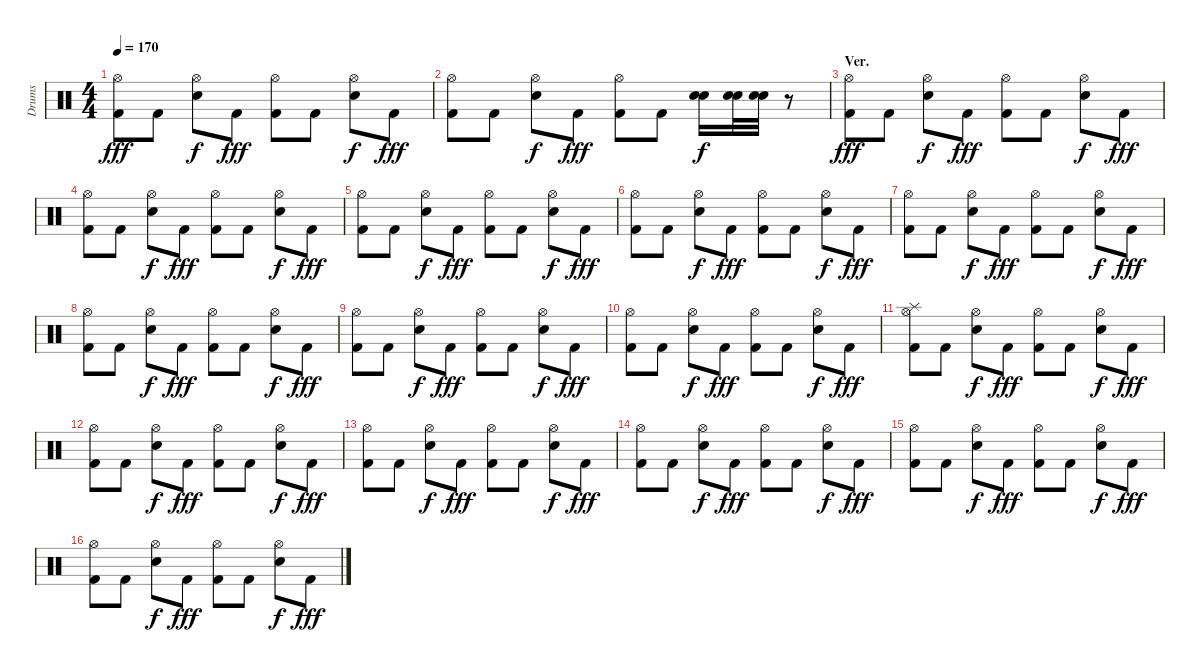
\track ("Drums" "Drums") {instrument percussion}
\staff {score}
\articulation defaults
\ts (4 4)
\tempo 170
\clef neutral
\ks c
("Hi-Hat (open)" "Kick (hit) 2").8{dy fff} "Kick (hit) 2".8 ("Hi-Hat (open)" "Snare (hit) 2").8{dy f} "Kick (hit) 2".8{dy fff} ("Hi-Hat (open)" "Kick (hit) 2").8 "Kick (hit) 2".8 ("Hi-Hat (open)" "Snare (hit) 2").8{dy f} "Kick (hit) 2".8{dy fff} |
("Hi-Hat (open)" "Kick (hit) 2").8 "Kick (hit) 2".8 ("Hi-Hat (open)" "Electric Snare (hit)").8{dy f} "Kick (hit) 2".8{dy fff} ("Hi-Hat (open)" "Kick (hit) 2").8 "Kick (hit) 2".8 ("Electric Snare (hit)" "Electric Snare (hit)").16{dy f} ("Electric Snare (hit)" "Electric Snare (hit)").32 ("Electric Snare (hit)" "Electric Snare (hit)").32 r.8 |
\section ("" "Ver.")
("Hi-Hat (open)" "Kick (hit) 2").8{dy fff} "Kick (hit) 2".8 ("Hi-Hat (open)" "Snare (hit) 2").8{dy f} "Kick (hit) 2".8{dy fff} ("Hi-Hat (open)" "Kick (hit) 2").8 "Kick (hit) 2".8 ("Hi-Hat (open)" "Snare (hit) 2").8{dy f} "Kick (hit) 2".8{dy fff} |
("Hi-Hat (open)" "Kick (hit) 2").8 "Kick (hit) 2".8 ("Hi-Hat (open)" "Snare (hit) 2").8{dy f} "Kick (hit) 2".8{dy fff} ("Hi-Hat (open)" "Kick (hit) 2").8 "Kick (hit) 2".8 ("Hi-Hat (open)" "Snare (hit) 2").8{dy f} "Kick (hit) 2".8{dy fff} |
("Hi-Hat (open)" "Kick (hit) 2").8 "Kick (hit) 2".8 ("Hi-Hat (open)" "Snare (hit) 2").8{dy f} "Kick (hit) 2".8{dy fff} ("Hi-Hat (open)" "Kick (hit) 2").8 "Kick (hit) 2".8 ("Hi-Hat (open)" "Snare (hit) 2").8{dy f} "Kick (hit) 2".8{dy fff} |
("Hi-Hat (open)" "Kick (hit) 2").8 "Kick (hit) 2".8 ("Hi-Hat (open)" "Snare (hit) 2").8{dy f} "Kick (hit) 2".8{dy fff} ("Hi-Hat (open)" "Kick (hit) 2").8 "Kick (hit) 2".8 ("Hi-Hat (open)" "Snare (hit) 2").8{dy f} "Kick (hit) 2".8{dy fff} |
("Hi-Hat (open)" "Kick (hit) 2").8 "Kick (hit) 2".8 ("Hi-Hat (open)" "Snare (hit) 2").8{dy f} "Kick (hit) 2".8{dy fff} ("Hi-Hat (open)" "Kick (hit) 2").8 "Kick (hit) 2".8 ("Hi-Hat (open)" "Snare (hit) 2").8{dy f} "Kick (hit) 2".8{dy fff} |
("Hi-Hat (open)" "Kick (hit) 2").8 "Kick (hit) 2".8 ("Hi-Hat (open)" "Snare (hit) 2").8{dy f} "Kick (hit) 2".8{dy fff} ("Hi-Hat (open)" "Kick (hit) 2").8 "Kick (hit) 2".8 ("Hi-Hat (open)" "Snare (hit) 2").8{dy f} "Kick (hit) 2".8{dy fff} |
("Hi-Hat (open)" "Kick (hit) 2").8 "Kick (hit) 2".8 ("Hi-Hat (open)" "Snare (hit) 2").8{dy f} "Kick (hit) 2".8{dy fff} ("Hi-Hat (open)" "Kick (hit) 2").8 "Kick (hit) 2".8 ("Hi-Hat (open)" "Snare (hit) 2").8{dy f} "Kick (hit) 2".8{dy fff} |
("Hi-Hat (open)" "Kick (hit) 2").8 "Kick (hit) 2".8 ("Hi-Hat (open)" "Snare (hit) 2").8{dy f} "Kick (hit) 2".8{dy fff} ("Hi-Hat (open)" "Kick (hit) 2").8 "Kick (hit) 2".8 ("Hi-Hat (open)" "Snare (hit) 2").8{dy f} "Kick (hit) 2".8{dy fff} |
("Hi-Hat (open)" "Splash (hit)" "Kick (hit) 2").8 "Kick (hit) 2".8 ("Hi-Hat (open)" "Snare (hit) 2").8{dy f} "Kick (hit) 2".8{dy fff} ("Hi-Hat (open)" "Kick (hit) 2").8 "Kick (hit) 2".8 ("Hi-Hat (open)" "Snare (hit) 2").8{dy f} "Kick (hit) 2".8{dy fff} |
("Hi-Hat (open)" "Kick (hit) 2").8 "Kick (hit) 2".8 ("Hi-Hat (open)" "Snare (hit) 2").8{dy f} "Kick (hit) 2".8{dy fff} ("Hi-Hat (open)" "Kick (hit) 2").8 "Kick (hit) 2".8 ("Hi-Hat (open)" "Snare (hit) 2").8{dy f} "Kick (hit) 2".8{dy fff} |
("Hi-Hat (open)" "Kick (hit) 2").8 "Kick (hit) 2".8 ("Hi-Hat (open)" "Snare (hit) 2").8{dy f} "Kick (hit) 2".8{dy fff} ("Hi-Hat (open)" "Kick (hit) 2").8 "Kick (hit) 2".8 ("Hi-Hat (open)" "Snare (hit) 2").8{dy f} "Kick (hit) 2".8{dy fff} |
("Hi-Hat (open)" "Kick (hit) 2").8 "Kick (hit) 2".8 ("Hi-Hat (open)" "Snare (hit) 2").8{dy f} "Kick (hit) 2".8{dy fff} ("Hi-Hat (open)" "Kick (hit) 2").8 "Kick (hit) 2".8 ("Hi-Hat (open)" "Snare (hit) 2").8{dy f} "Kick (hit) 2".8{dy fff} |
("Hi-Hat (open)" "Kick (hit) 2").8 "Kick (hit) 2".8 ("Hi-Hat (open)" "Snare (hit) 2").8{dy f} "Kick (hit) 2".8{dy fff} ("Hi-Hat (open)" "Kick (hit) 2").8 "Kick (hit) 2".8 ("Hi-Hat (open)" "Snare (hit) 2").8{dy f} "Kick (hit) 2".8{dy fff} |
("Hi-Hat (open)" "Kick (hit) 2").8 "Kick (hit) 2".8 ("Hi-Hat (open)" "Snare (hit) 2").8{dy f} "Kick (hit) 2".8{dy fff} ("Hi-Hat (open)" "Kick (hit) 2").8 "Kick (hit) 2".8 ("Hi-Hat (open)" "Snare (hit) 2").8{dy f} "Kick (hit) 2".8{dy fff}
